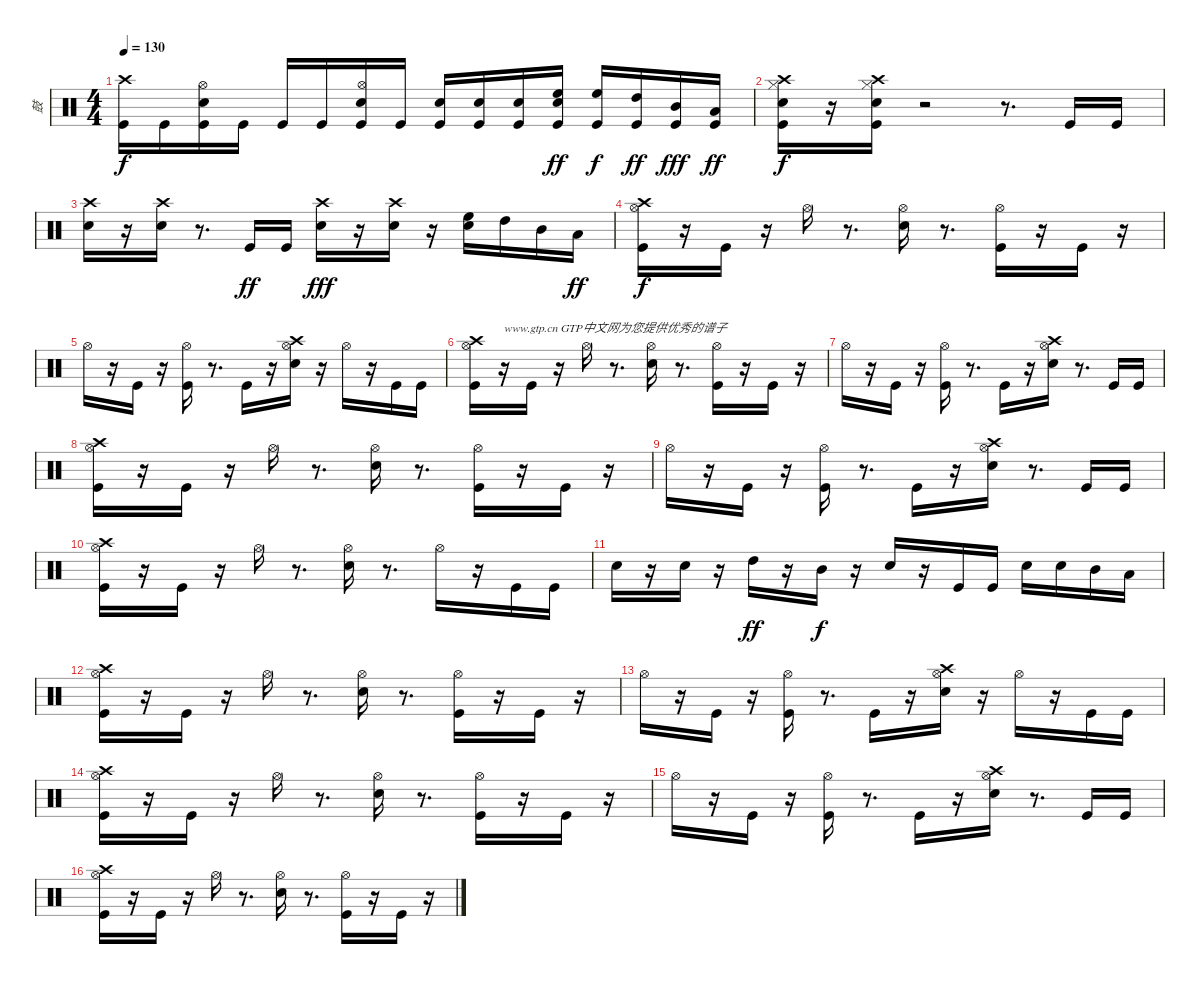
\track ("鼓" "鼓") {instrument percussion}
\staff {score}
\articulation defaults
\ts (4 4)
\tempo 130
\clef neutral
\ks c
("Crash high (hit)" "Kick (hit)").16{dy f} "Kick (hit)".16 ("Hi-Hat (open)" "Kick (hit)" "Snare (hit) 2").16 "Kick (hit)".16 "Kick (hit)".16 "Kick (hit)".16 ("Hi-Hat (open)" "Kick (hit)" "Snare (hit) 2").16 "Kick (hit)".16 ("Snare (hit) 2" "Kick (hit)").16 ("Snare (hit) 2" "Kick (hit)").16 ("Snare (hit) 2" "Kick (hit)").16 ("Snare (hit) 2" "Kick (hit)" "High Floor Tom (hit)").16{dy ff} ("Kick (hit)" "High Floor Tom (hit)").16{dy f} ("Kick (hit)" "High Tom (hit)").16{dy ff} ("Mid Tom (hit)" "Kick (hit)").16{dy fff} ("Kick (hit)" "Low Tom (hit)").16{dy ff} |
("Crash high (hit)" "Snare (hit) 2" "Kick (hit)" "Hi-Hat (closed)").16{dy f} r.16 ("Crash high (hit)" "Snare (hit) 2" "Kick (hit)" "Hi-Hat (closed)").16 r.2 r.8{d} "Kick (hit)".16 "Kick (hit)".16 |
("Crash high (hit)" "Snare (hit) 2").16 r.16 ("Crash high (hit)" "Snare (hit) 2").16 r.8{d} "Kick (hit)".16{dy ff} "Kick (hit)".16 ("Snare (hit) 2" "Crash high (hit)").16{dy fff} r.16 ("Snare (hit) 2" "Crash high (hit)").16 r.16 ("Snare (hit) 2" "High Floor Tom (hit)").16 "High Tom (hit)".16 "Mid Tom (hit)".16 "Low Tom (hit)".16{dy ff} |
("Hi-Hat (open)" "Crash high (hit)" "Kick (hit)").16{dy f} r.16 "Kick (hit)".16 r.16 "Hi-Hat (open)".16 r.8{d} ("Hi-Hat (open)" "Snare (hit) 2").16 r.8{d} ("Hi-Hat (open)" "Kick (hit)").16 r.16 "Kick (hit)".16 r.16 |
"Hi-Hat (open)".16 r.16 "Kick (hit)".16 r.16 ("Hi-Hat (open)" "Kick (hit)").16 r.8{d} "Kick (hit)".16 r.16 ("Hi-Hat (open)" "Snare (hit) 2" "Crash high (hit)").16 r.16 "Hi-Hat (open)".16 r.16 "Kick (hit)".16 "Kick (hit)".16 |
("Hi-Hat (open)" "Crash high (hit)" "Kick (hit)").16 r.16{txt "www.gtp.cn GTP中文网为您提供优秀的谱子"} "Kick (hit)".16 r.16 "Hi-Hat (open)".16 r.8{d} ("Hi-Hat (open)" "Snare (hit) 2").16 r.8{d} ("Hi-Hat (open)" "Kick (hit)").16 r.16 "Kick (hit)".16 r.16 |
"Hi-Hat (open)".16 r.16 "Kick (hit)".16 r.16 ("Hi-Hat (open)" "Kick (hit)").16 r.8{d} "Kick (hit)".16 r.16 ("Hi-Hat (open)" "Snare (hit) 2" "Crash high (hit)").16 r.8{d} "Kick (hit)".16 "Kick (hit)".16 |
("Hi-Hat (open)" "Crash high (hit)" "Kick (hit)").16 r.16 "Kick (hit)".16 r.16 "Hi-Hat (open)".16 r.8{d} ("Hi-Hat (open)" "Snare (hit) 2").16 r.8{d} ("Hi-Hat (open)" "Kick (hit)").16 r.16 "Kick (hit)".16 r.16 |
"Hi-Hat (open)".16 r.16 "Kick (hit)".16 r.16 ("Hi-Hat (open)" "Kick (hit)").16 r.8{d} "Kick (hit)".16 r.16 ("Hi-Hat (open)" "Snare (hit) 2" "Crash high (hit)").16 r.8{d} "Kick (hit)".16 "Kick (hit)".16 |
("Hi-Hat (open)" "Crash high (hit)" "Kick (hit)").16 r.16 "Kick (hit)".16 r.16 "Hi-Hat (open)".16 r.8{d} ("Hi-Hat (open)" "Snare (hit) 2").16 r.8{d} "Hi-Hat (open)".16 r.16 "Kick (hit)".16 "Kick (hit)".16 |
"Snare (hit) 2".16 r.16 "Snare (hit) 2".16 r.16 "High Tom (hit)".16{dy ff} r.16 "Mid Tom (hit)".16{dy f} r.16 "Snare (hit) 2".16 r.16 "Kick (hit)".16 "Kick (hit)".16 "Snare (hit) 2".16 "Snare (hit) 2".16 "Mid Tom (hit)".16 "Low Tom (hit)".16 |
("Hi-Hat (open)" "Crash high (hit)" "Kick (hit)").16 r.16 "Kick (hit)".16 r.16 "Hi-Hat (open)".16 r.8{d} ("Hi-Hat (open)" "Snare (hit) 2").16 r.8{d} ("Hi-Hat (open)" "Kick (hit)").16 r.16 "Kick (hit)".16 r.16 |
"Hi-Hat (open)".16 r.16 "Kick (hit)".16 r.16 ("Hi-Hat (open)" "Kick (hit)").16 r.8{d} "Kick (hit)".16 r.16 ("Hi-Hat (open)" "Snare (hit) 2" "Crash high (hit)").16 r.16 "Hi-Hat (open)".16 r.16 "Kick (hit)".16 "Kick (hit)".16 |
("Hi-Hat (open)" "Crash high (hit)" "Kick (hit)").16 r.16 "Kick (hit)".16 r.16 "Hi-Hat (open)".16 r.8{d} ("Hi-Hat (open)" "Snare (hit) 2").16 r.8{d} ("Hi-Hat (open)" "Kick (hit)").16 r.16 "Kick (hit)".16 r.16 |
"Hi-Hat (open)".16 r.16 "Kick (hit)".16 r.16 ("Hi-Hat (open)" "Kick (hit)").16 r.8{d} "Kick (hit)".16 r.16 ("Hi-Hat (open)" "Snare (hit) 2" "Crash high (hit)").16 r.8{d} "Kick (hit)".16 "Kick (hit)".16 |
("Hi-Hat (open)" "Crash high (hit)" "Kick (hit)").16 r.16 "Kick (hit)".16 r.16 "Hi-Hat (open)".16 r.8{d} ("Hi-Hat (open)" "Snare (hit) 2").16 r.8{d} ("Hi-Hat (open)" "Kick (hit)").16 r.16 "Kick (hit)".16 r.16
